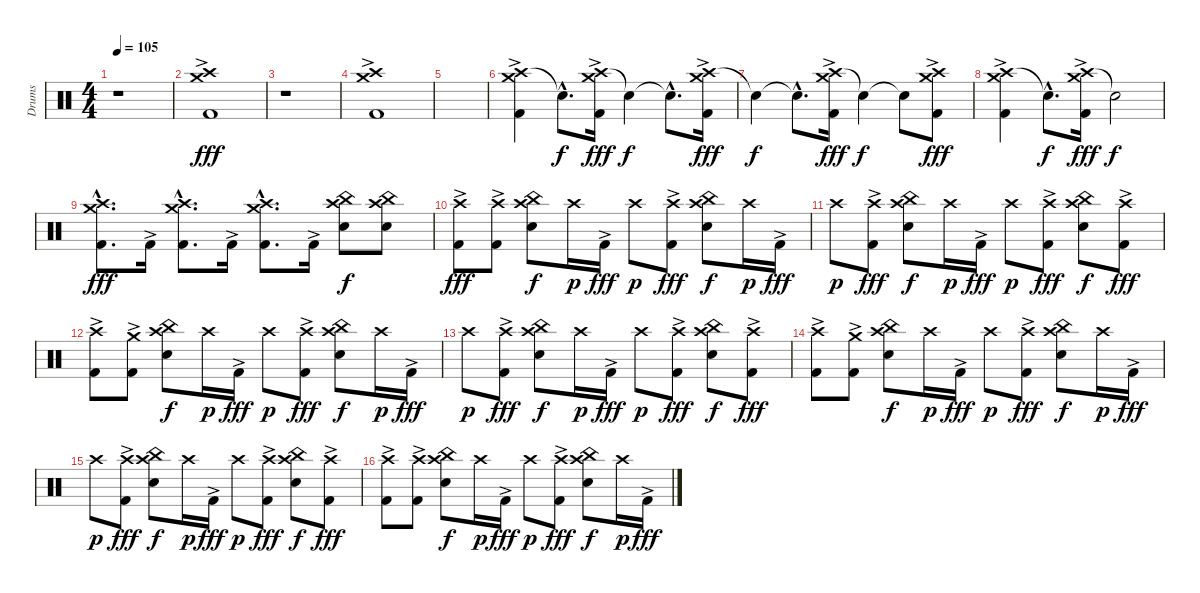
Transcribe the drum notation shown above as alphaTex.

\track ("Drums" "Drums") {instrument percussion}
\staff {score}
\articulation defaults
\ts (4 4)
\tempo 105
\clef neutral
\ks aminor
r.1{dy fff} |
("Crash high (hit)" "Crash medium (hit)" "Kick (hit) 2"{ac}).1 |
r.1 |
("Crash high (hit)" "Crash medium (hit)" "Kick (hit) 2"{ac}).1 |
|
("Crash high (hit)" "Crash medium (hit)" "Kick (hit) 2"{ac}).4 "Snare (hit)"{hac t}.8{d dy f} ("Crash high (hit)" "Crash medium (hit)" "Kick (hit) 2"{ac}).16{dy fff} "Snare (hit)"{t}.4{dy f} "Snare (hit)"{hac t}.8{d} ("Crash high (hit)" "Crash medium (hit)" "Kick (hit) 2"{ac}).16{dy fff} |
"Snare (hit)"{t}.4{dy f} "Snare (hit)"{hac t}.8{d} ("Crash high (hit)" "Crash medium (hit)" "Kick (hit) 2"{ac}).16{dy fff} "Snare (hit)"{t}.4{dy f} "Snare (hit)"{t}.8 ("Crash high (hit)" "Crash medium (hit)" "Kick (hit) 2"{ac}).8{dy fff} |
("Crash high (hit)" "Crash medium (hit)" "Kick (hit) 2"{ac}).4 "Snare (hit)"{hac t}.8{d dy f} ("Crash high (hit)" "Crash medium (hit)" "Kick (hit) 2"{ac}).16{dy fff} "Snare (hit)"{t}.2{dy f} |
("Crash high (hit)"{hac} "Crash medium (hit)"{hac} "Kick (hit) 2"{hac}).8{d dy fff} "Kick (hit) 2"{ac}.16 ("Crash high (hit)"{hac} "Crash medium (hit)"{hac} "Kick (hit) 2"{hac}).8{d} "Kick (hit) 2"{ac}.16 ("Crash high (hit)"{hac} "Crash medium (hit)"{hac} "Kick (hit) 2"{hac}).8{d} "Kick (hit) 2"{ac}.16 ("Crash high (hit)" "China (hit)" "Snare (hit) 2").8{dy f} ("Crash high (hit)" "China (hit)" "Snare (hit) 2").8 |
("Crash high (hit)" "Kick (hit) 2"{ac}).8{dy fff} ("Crash high (hit)" "Kick (hit) 2"{ac}).8 ("Crash high (hit)" "China (hit)" "Snare (hit) 2").8{dy f} "Crash high (hit)".16{dy p} "Kick (hit) 2"{ac}.16{dy fff} "Crash high (hit)".8{dy p} ("Crash high (hit)" "Kick (hit) 2"{ac}).8{dy fff} ("Crash high (hit)" "China (hit)" "Snare (hit) 2").8{dy f} "Crash high (hit)".16{dy p} "Kick (hit) 2"{ac}.16{dy fff} |
"Crash high (hit)".8{dy p} ("Crash high (hit)" "Kick (hit) 2"{ac}).8{dy fff} ("Crash high (hit)" "China (hit)" "Snare (hit) 2").8{dy f} "Crash high (hit)".16{dy p} "Kick (hit) 2"{ac}.16{dy fff} "Crash high (hit)".8{dy p} ("Crash high (hit)" "Kick (hit) 2"{ac}).8{dy fff} ("Crash high (hit)" "China (hit)" "Snare (hit) 2").8{dy f} ("Crash high (hit)" "Kick (hit) 2"{ac}).8{dy fff} |
("Crash high (hit)" "Kick (hit) 2"{ac}).8 ("Crash medium (hit)" "Kick (hit) 2"{ac}).8 ("Crash high (hit)" "China (hit)" "Snare (hit) 2").8{dy f} "Crash high (hit)".16{dy p} "Kick (hit) 2"{ac}.16{dy fff} "Crash high (hit)".8{dy p} ("Crash high (hit)" "Kick (hit) 2"{ac}).8{dy fff} ("Crash high (hit)" "China (hit)" "Snare (hit) 2").8{dy f} "Crash high (hit)".16{dy p} "Kick (hit) 2"{ac}.16{dy fff} |
"Crash high (hit)".8{dy p} ("Crash high (hit)" "Kick (hit) 2"{ac}).8{dy fff} ("Crash high (hit)" "China (hit)" "Snare (hit) 2").8{dy f} "Crash high (hit)".16{dy p} "Kick (hit) 2"{ac}.16{dy fff} "Crash high (hit)".8{dy p} ("Crash high (hit)" "Kick (hit) 2"{ac}).8{dy fff} ("Crash high (hit)" "China (hit)" "Snare (hit) 2").8{dy f} ("Crash high (hit)" "Kick (hit) 2"{ac}).8{dy fff} |
("Crash high (hit)" "Kick (hit) 2"{ac}).8 ("Crash medium (hit)" "Kick (hit) 2"{ac}).8 ("Crash high (hit)" "China (hit)" "Snare (hit) 2").8{dy f} "Crash high (hit)".16{dy p} "Kick (hit) 2"{ac}.16{dy fff} "Crash high (hit)".8{dy p} ("Crash high (hit)" "Kick (hit) 2"{ac}).8{dy fff} ("Crash high (hit)" "China (hit)" "Snare (hit) 2").8{dy f} "Crash high (hit)".16{dy p} "Kick (hit) 2"{ac}.16{dy fff} |
"Crash high (hit)".8{dy p} ("Crash high (hit)" "Kick (hit) 2"{ac}).8{dy fff} ("Crash high (hit)" "China (hit)" "Snare (hit) 2").8{dy f} "Crash high (hit)".16{dy p} "Kick (hit) 2"{ac}.16{dy fff} "Crash high (hit)".8{dy p} ("Crash high (hit)" "Kick (hit) 2"{ac}).8{dy fff} ("Crash high (hit)" "China (hit)" "Snare (hit) 2").8{dy f} ("Crash high (hit)" "Kick (hit) 2"{ac}).8{dy fff} |
("Crash high (hit)" "Kick (hit) 2"{ac}).8 ("Crash high (hit)" "Kick (hit) 2"{ac}).8 ("Crash high (hit)" "China (hit)" "Snare (hit) 2").8{dy f} "Crash high (hit)".16{dy p} "Kick (hit) 2"{ac}.16{dy fff} "Crash high (hit)".8{dy p} ("Crash high (hit)" "Kick (hit) 2"{ac}).8{dy fff} ("Crash high (hit)" "China (hit)" "Snare (hit) 2").8{dy f} "Crash high (hit)".16{dy p} "Kick (hit) 2"{ac}.16{dy fff}
